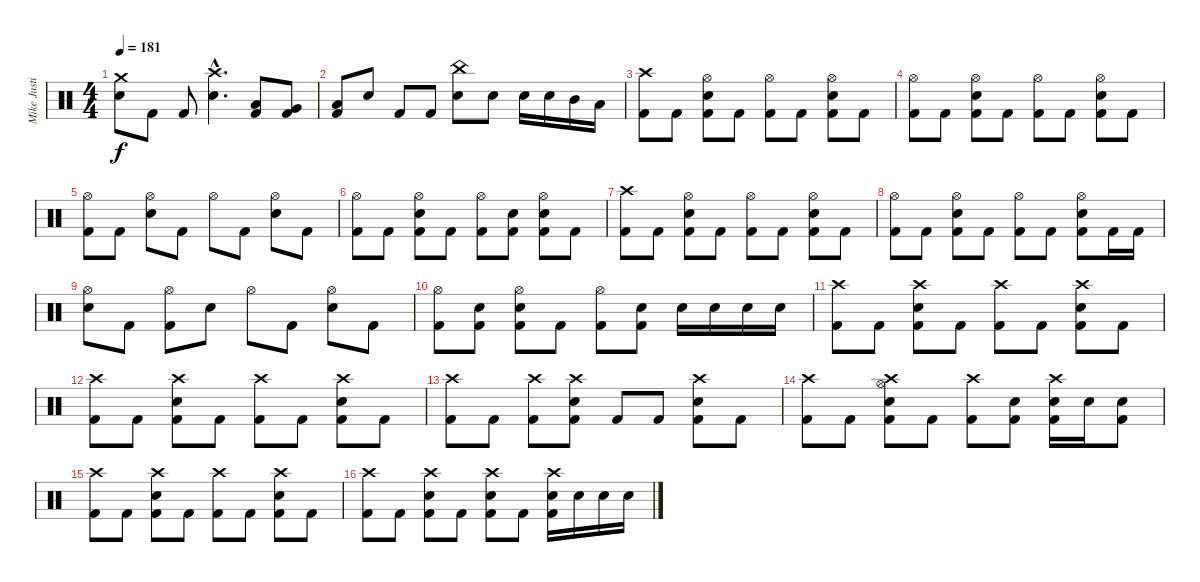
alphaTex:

\track ("Mike Justian (Drums)" "Mike Justi") {instrument percussion}
\staff {score}
\articulation defaults
\ts (4 4)
\tempo 181
\clef neutral
\ks c
("Crash medium (hit)" "Snare (hit) 2").8{dy f} "Kick (hit) 2".8 "Kick (hit) 2".8 ("Crash high (hit)"{hac} "Snare (hit) 2"{hac}).4{d} ("Low Tom (hit)" "Kick (hit) 2").8 ("Very Low Tom (hit)" "Kick (hit) 2").8 |
("Low Floor Tom (hit)" "Kick (hit) 2").8 "Snare (hit) 2".8 "Kick (hit) 2".8 "Kick (hit) 2".8 ("China (hit)" "Snare (hit) 2").8 "Snare (hit) 2".8 "Snare (hit) 2".16 "Snare (hit) 2".16 "Mid Tom (hit)".16 "Low Tom (hit)".16 |
("Crash high (hit)" "Kick (hit) 2").8 "Kick (hit) 2".8 ("Snare (hit) 2" "Hi-Hat (open)" "Kick (hit) 2").8 "Kick (hit) 2".8 ("Hi-Hat (open)" "Kick (hit) 2").8 "Kick (hit) 2".8 ("Hi-Hat (open)" "Snare (hit) 2" "Kick (hit) 2").8 "Kick (hit) 2".8 |
("Hi-Hat (open)" "Kick (hit) 2").8 "Kick (hit) 2".8 ("Snare (hit) 2" "Hi-Hat (open)" "Kick (hit) 2").8 "Kick (hit) 2".8 ("Hi-Hat (open)" "Kick (hit) 2").8 "Kick (hit) 2".8 ("Hi-Hat (open)" "Snare (hit) 2" "Kick (hit) 2").8 "Kick (hit) 2".8 |
("Hi-Hat (open)" "Kick (hit) 2").8 "Kick (hit) 2".8 ("Snare (hit) 2" "Hi-Hat (open)").8 "Kick (hit) 2".8 "Hi-Hat (open)".8 "Kick (hit) 2".8 ("Hi-Hat (open)" "Snare (hit) 2").8 "Kick (hit) 2".8 |
("Hi-Hat (open)" "Kick (hit) 2").8 "Kick (hit) 2".8 ("Snare (hit) 2" "Hi-Hat (open)" "Kick (hit) 2").8 "Kick (hit) 2".8 ("Hi-Hat (open)" "Kick (hit) 2").8 ("Snare (hit) 2" "Kick (hit) 2").8 ("Hi-Hat (open)" "Snare (hit) 2" "Kick (hit) 2").8 "Kick (hit) 2".8 |
("Crash high (hit)" "Kick (hit) 2").8 "Kick (hit) 2".8 ("Snare (hit) 2" "Hi-Hat (open)" "Kick (hit) 2").8 "Kick (hit) 2".8 ("Hi-Hat (open)" "Kick (hit) 2").8 "Kick (hit) 2".8 ("Hi-Hat (open)" "Snare (hit) 2" "Kick (hit) 2").8 "Kick (hit) 2".8 |
("Hi-Hat (open)" "Kick (hit) 2").8 "Kick (hit) 2".8 ("Snare (hit) 2" "Hi-Hat (open)" "Kick (hit) 2").8 "Kick (hit) 2".8 ("Hi-Hat (open)" "Kick (hit) 2").8 "Kick (hit) 2".8 ("Hi-Hat (open)" "Snare (hit) 2" "Kick (hit) 2").8 "Kick (hit) 2".16 "Kick (hit) 2".16 |
("Hi-Hat (open)" "Snare (hit) 2").8 "Kick (hit) 2".8 ("Hi-Hat (open)" "Kick (hit) 2").8 "Snare (hit) 2".8 "Hi-Hat (open)".8 "Kick (hit) 2".8 ("Hi-Hat (open)" "Snare (hit) 2").8 "Kick (hit) 2".8 |
("Hi-Hat (open)" "Kick (hit) 2").8 ("Snare (hit) 2" "Kick (hit) 2").8 ("Snare (hit) 2" "Hi-Hat (open)" "Kick (hit) 2").8 "Kick (hit) 2".8 ("Hi-Hat (open)" "Kick (hit) 2").8 ("Snare (hit) 2" "Kick (hit) 2").8 "Snare (hit) 2".16 "Snare (hit) 2".16 "Snare (hit) 2".16 "Snare (hit) 2".16 |
("Crash high (hit)" "Kick (hit) 2").8 "Kick (hit) 2".8 ("Snare (hit) 2" "Crash high (hit)" "Kick (hit) 2").8 "Kick (hit) 2".8 ("Crash high (hit)" "Kick (hit) 2").8 "Kick (hit) 2".8 ("Crash high (hit)" "Snare (hit) 2" "Kick (hit) 2").8 "Kick (hit) 2".8 |
("Crash high (hit)" "Kick (hit) 2").8 "Kick (hit) 2".8 ("Snare (hit) 2" "Crash high (hit)" "Kick (hit) 2").8 "Kick (hit) 2".8 ("Crash high (hit)" "Kick (hit) 2").8 "Kick (hit) 2".8 ("Crash high (hit)" "Snare (hit) 2" "Kick (hit) 2").8 "Kick (hit) 2".8 |
("Crash high (hit)" "Kick (hit) 2").8 "Kick (hit) 2".8 ("Crash high (hit)" "Kick (hit) 2").8 ("Crash high (hit)" "Snare (hit) 2" "Kick (hit) 2").8 "Kick (hit) 2".8 "Kick (hit) 2".8 ("Crash high (hit)" "Snare (hit) 2" "Kick (hit) 2").8 "Kick (hit) 2".8 |
("Crash high (hit)" "Kick (hit) 2").8 "Kick (hit) 2".8 ("Hi-Hat (open)" "Snare (hit) 2" "Crash high (hit)" "Kick (hit) 2").8 "Kick (hit) 2".8 ("Crash high (hit)" "Kick (hit) 2").8 ("Snare (hit) 2" "Kick (hit) 2").8 ("Crash high (hit)" "Snare (hit) 2" "Kick (hit) 2").16 "Snare (hit) 2".16 ("Snare (hit) 2" "Kick (hit) 2").8 |
("Crash high (hit)" "Kick (hit) 2").8 "Kick (hit) 2".8 ("Snare (hit) 2" "Crash high (hit)" "Kick (hit) 2").8 "Kick (hit) 2".8 ("Crash high (hit)" "Kick (hit) 2").8 "Kick (hit) 2".8 ("Crash high (hit)" "Snare (hit) 2" "Kick (hit) 2").8 "Kick (hit) 2".8 |
("Crash high (hit)" "Kick (hit) 2").8 "Kick (hit) 2".8 ("Snare (hit) 2" "Crash high (hit)" "Kick (hit) 2").8 "Kick (hit) 2".8 ("Snare (hit) 2" "Crash high (hit)" "Kick (hit) 2").8 "Kick (hit) 2".8 ("Crash high (hit)" "Snare (hit) 2" "Kick (hit) 2").16 "Snare (hit) 2".16 "Snare (hit) 2".16 "Snare (hit) 2".16
